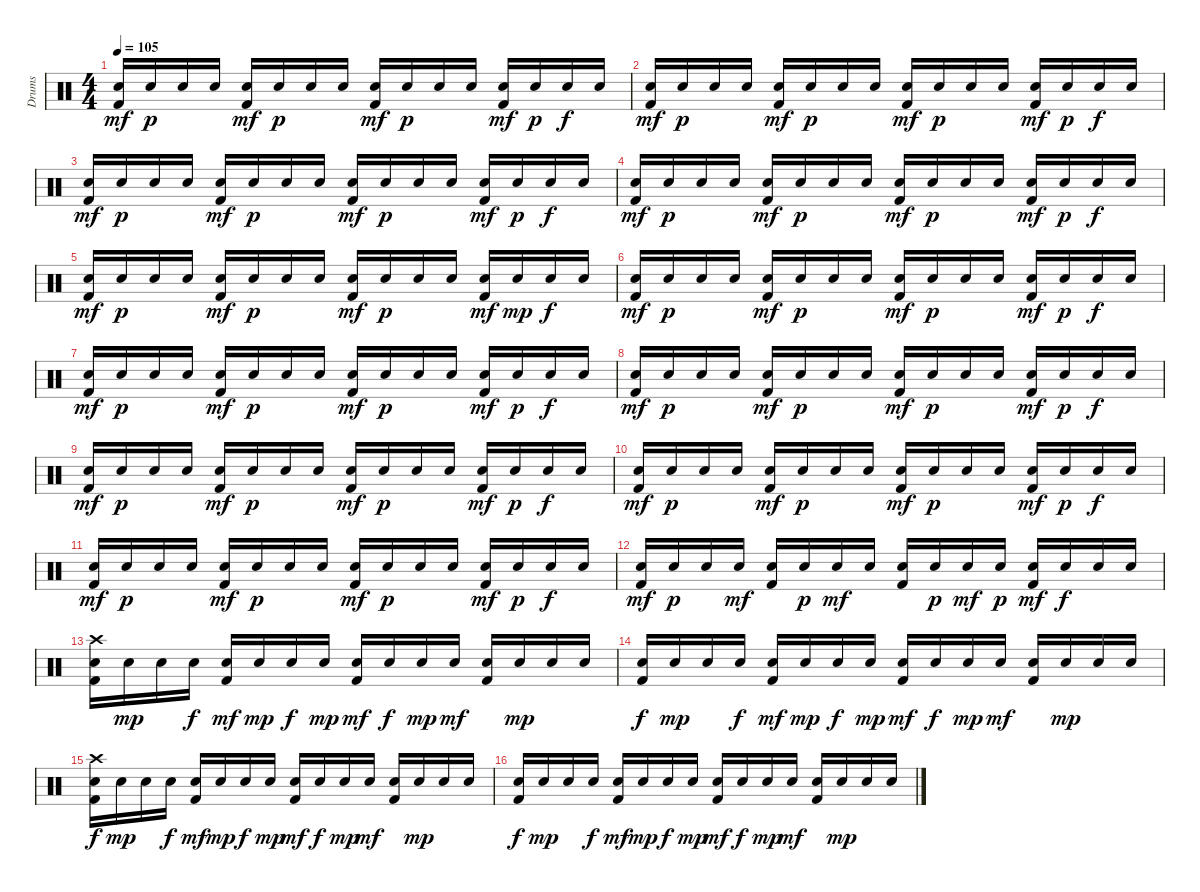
\track ("Drums" "Drums") {instrument percussion}
\staff {score}
\articulation defaults
\ts (4 4)
\tempo 105
\clef neutral
\ks c
("Snare (hit) 2" "Kick (hit) 2").16{dy mf} "Snare (hit) 2".16{dy p} "Snare (hit) 2".16 "Snare (hit) 2".16 ("Snare (hit) 2" "Kick (hit) 2").16{dy mf} "Snare (hit) 2".16{dy p} "Snare (hit) 2".16 "Snare (hit) 2".16 ("Snare (hit) 2" "Kick (hit) 2").16{dy mf} "Snare (hit) 2".16{dy p} "Snare (hit) 2".16 "Snare (hit) 2".16 ("Snare (hit) 2" "Kick (hit) 2").16{dy mf} "Snare (hit) 2".16{dy p} "Snare (hit) 2".16{dy f} "Snare (hit) 2".16 |
("Snare (hit) 2" "Kick (hit) 2").16{dy mf} "Snare (hit) 2".16{dy p} "Snare (hit) 2".16 "Snare (hit) 2".16 ("Snare (hit) 2" "Kick (hit) 2").16{dy mf} "Snare (hit) 2".16{dy p} "Snare (hit) 2".16 "Snare (hit) 2".16 ("Snare (hit) 2" "Kick (hit) 2").16{dy mf} "Snare (hit) 2".16{dy p} "Snare (hit) 2".16 "Snare (hit) 2".16 ("Snare (hit) 2" "Kick (hit) 2").16{dy mf} "Snare (hit) 2".16{dy p} "Snare (hit) 2".16{dy f} "Snare (hit) 2".16 |
("Snare (hit) 2" "Kick (hit) 2").16{dy mf} "Snare (hit) 2".16{dy p} "Snare (hit) 2".16 "Snare (hit) 2".16 ("Snare (hit) 2" "Kick (hit) 2").16{dy mf} "Snare (hit) 2".16{dy p} "Snare (hit) 2".16 "Snare (hit) 2".16 ("Snare (hit) 2" "Kick (hit) 2").16{dy mf} "Snare (hit) 2".16{dy p} "Snare (hit) 2".16 "Snare (hit) 2".16 ("Snare (hit) 2" "Kick (hit) 2").16{dy mf} "Snare (hit) 2".16{dy p} "Snare (hit) 2".16{dy f} "Snare (hit) 2".16 |
("Snare (hit) 2" "Kick (hit) 2").16{dy mf} "Snare (hit) 2".16{dy p} "Snare (hit) 2".16 "Snare (hit) 2".16 ("Snare (hit) 2" "Kick (hit) 2").16{dy mf} "Snare (hit) 2".16{dy p} "Snare (hit) 2".16 "Snare (hit) 2".16 ("Snare (hit) 2" "Kick (hit) 2").16{dy mf} "Snare (hit) 2".16{dy p} "Snare (hit) 2".16 "Snare (hit) 2".16 ("Snare (hit) 2" "Kick (hit) 2").16{dy mf} "Snare (hit) 2".16{dy p} "Snare (hit) 2".16{dy f} "Snare (hit) 2".16 |
("Snare (hit) 2" "Kick (hit) 2").16{dy mf volume 16} "Snare (hit) 2".16{dy p} "Snare (hit) 2".16 "Snare (hit) 2".16 ("Snare (hit) 2" "Kick (hit) 2").16{dy mf} "Snare (hit) 2".16{dy p} "Snare (hit) 2".16 "Snare (hit) 2".16 ("Snare (hit) 2" "Kick (hit) 2").16{dy mf} "Snare (hit) 2".16{dy p} "Snare (hit) 2".16 "Snare (hit) 2".16 ("Snare (hit) 2" "Kick (hit) 2").16{dy mf} "Snare (hit) 2".16{dy mp} "Snare (hit) 2".16{dy f} "Snare (hit) 2".16 |
("Snare (hit) 2" "Kick (hit) 2").16{dy mf} "Snare (hit) 2".16{dy p} "Snare (hit) 2".16 "Snare (hit) 2".16 ("Snare (hit) 2" "Kick (hit) 2").16{dy mf} "Snare (hit) 2".16{dy p} "Snare (hit) 2".16 "Snare (hit) 2".16 ("Snare (hit) 2" "Kick (hit) 2").16{dy mf} "Snare (hit) 2".16{dy p} "Snare (hit) 2".16 "Snare (hit) 2".16 ("Snare (hit) 2" "Kick (hit) 2").16{dy mf} "Snare (hit) 2".16{dy p} "Snare (hit) 2".16{dy f} "Snare (hit) 2".16 |
("Snare (hit) 2" "Kick (hit) 2").16{dy mf} "Snare (hit) 2".16{dy p} "Snare (hit) 2".16 "Snare (hit) 2".16 ("Snare (hit) 2" "Kick (hit) 2").16{dy mf} "Snare (hit) 2".16{dy p} "Snare (hit) 2".16 "Snare (hit) 2".16 ("Snare (hit) 2" "Kick (hit) 2").16{dy mf} "Snare (hit) 2".16{dy p} "Snare (hit) 2".16 "Snare (hit) 2".16 ("Snare (hit) 2" "Kick (hit) 2").16{dy mf} "Snare (hit) 2".16{dy p} "Snare (hit) 2".16{dy f} "Snare (hit) 2".16 |
("Snare (hit) 2" "Kick (hit) 2").16{dy mf} "Snare (hit) 2".16{dy p} "Snare (hit) 2".16 "Snare (hit) 2".16 ("Snare (hit) 2" "Kick (hit) 2").16{dy mf} "Snare (hit) 2".16{dy p} "Snare (hit) 2".16 "Snare (hit) 2".16 ("Snare (hit) 2" "Kick (hit) 2").16{dy mf} "Snare (hit) 2".16{dy p} "Snare (hit) 2".16 "Snare (hit) 2".16 ("Snare (hit) 2" "Kick (hit) 2").16{dy mf} "Snare (hit) 2".16{dy p} "Snare (hit) 2".16{dy f} "Snare (hit) 2".16 |
("Snare (hit) 2" "Kick (hit) 2").16{dy mf} "Snare (hit) 2".16{dy p} "Snare (hit) 2".16 "Snare (hit) 2".16 ("Snare (hit) 2" "Kick (hit) 2").16{dy mf} "Snare (hit) 2".16{dy p} "Snare (hit) 2".16 "Snare (hit) 2".16 ("Snare (hit) 2" "Kick (hit) 2").16{dy mf} "Snare (hit) 2".16{dy p} "Snare (hit) 2".16 "Snare (hit) 2".16 ("Snare (hit) 2" "Kick (hit) 2").16{dy mf} "Snare (hit) 2".16{dy p} "Snare (hit) 2".16{dy f} "Snare (hit) 2".16 |
("Snare (hit) 2" "Kick (hit) 2").16{dy mf} "Snare (hit) 2".16{dy p} "Snare (hit) 2".16 "Snare (hit) 2".16 ("Snare (hit) 2" "Kick (hit) 2").16{dy mf} "Snare (hit) 2".16{dy p} "Snare (hit) 2".16 "Snare (hit) 2".16 ("Snare (hit) 2" "Kick (hit) 2").16{dy mf} "Snare (hit) 2".16{dy p} "Snare (hit) 2".16 "Snare (hit) 2".16 ("Snare (hit) 2" "Kick (hit) 2").16{dy mf} "Snare (hit) 2".16{dy p} "Snare (hit) 2".16{dy f} "Snare (hit) 2".16 |
("Snare (hit) 2" "Kick (hit) 2").16{dy mf} "Snare (hit) 2".16{dy p} "Snare (hit) 2".16 "Snare (hit) 2".16 ("Snare (hit) 2" "Kick (hit) 2").16{dy mf} "Snare (hit) 2".16{dy p} "Snare (hit) 2".16 "Snare (hit) 2".16 ("Snare (hit) 2" "Kick (hit) 2").16{dy mf} "Snare (hit) 2".16{dy p} "Snare (hit) 2".16 "Snare (hit) 2".16 ("Snare (hit) 2" "Kick (hit) 2").16{dy mf} "Snare (hit) 2".16{dy p} "Snare (hit) 2".16{dy f} "Snare (hit) 2".16 |
("Snare (hit) 2" "Kick (hit) 2").16{dy mf} "Snare (hit) 2".16{dy p} "Snare (hit) 2".16 "Snare (hit) 2".16{dy mf} ("Snare (hit) 2" "Kick (hit) 2").16 "Snare (hit) 2".16{dy p} "Snare (hit) 2".16{dy mf} "Snare (hit) 2".16 ("Snare (hit) 2" "Kick (hit) 2").16 "Snare (hit) 2".16{dy p} "Snare (hit) 2".16{dy mf} "Snare (hit) 2".16{dy p} ("Snare (hit) 2" "Kick (hit) 2").16{dy mf} "Snare (hit) 2".16{dy f} "Snare (hit) 2".16 "Snare (hit) 2".16 |
("Crash high (hit)" "Snare (hit) 2" "Kick (hit) 2").16 "Snare (hit) 2".16{dy mp} "Snare (hit) 2".16 "Snare (hit) 2".16{dy f} ("Snare (hit) 2" "Kick (hit) 2").16{dy mf} "Snare (hit) 2".16{dy mp} "Snare (hit) 2".16{dy f} "Snare (hit) 2".16{dy mp} ("Snare (hit) 2" "Kick (hit) 2").16{dy mf} "Snare (hit) 2".16{dy f} "Snare (hit) 2".16{dy mp} "Snare (hit) 2".16{dy mf} ("Snare (hit) 2" "Kick (hit) 2").16 "Snare (hit) 2".16{dy mp} "Snare (hit) 2".16 "Snare (hit) 2".16 |
("Snare (hit) 2" "Kick (hit) 2").16{dy f} "Snare (hit) 2".16{dy mp} "Snare (hit) 2".16 "Snare (hit) 2".16{dy f} ("Snare (hit) 2" "Kick (hit) 2").16{dy mf} "Snare (hit) 2".16{dy mp} "Snare (hit) 2".16{dy f} "Snare (hit) 2".16{dy mp} ("Snare (hit) 2" "Kick (hit) 2").16{dy mf} "Snare (hit) 2".16{dy f} "Snare (hit) 2".16{dy mp} "Snare (hit) 2".16{dy mf} ("Snare (hit) 2" "Kick (hit) 2").16 "Snare (hit) 2".16{dy mp} "Snare (hit) 2".16 "Snare (hit) 2".16 |
("Crash high (hit)" "Snare (hit) 2" "Kick (hit) 2").16{dy f} "Snare (hit) 2".16{dy mp} "Snare (hit) 2".16 "Snare (hit) 2".16{dy f} ("Snare (hit) 2" "Kick (hit) 2").16{dy mf} "Snare (hit) 2".16{dy mp} "Snare (hit) 2".16{dy f} "Snare (hit) 2".16{dy mp} ("Snare (hit) 2" "Kick (hit) 2").16{dy mf} "Snare (hit) 2".16{dy f} "Snare (hit) 2".16{dy mp} "Snare (hit) 2".16{dy mf} ("Snare (hit) 2" "Kick (hit) 2").16 "Snare (hit) 2".16{dy mp} "Snare (hit) 2".16 "Snare (hit) 2".16 |
("Snare (hit) 2" "Kick (hit) 2").16{dy f} "Snare (hit) 2".16{dy mp} "Snare (hit) 2".16 "Snare (hit) 2".16{dy f} ("Snare (hit) 2" "Kick (hit) 2").16{dy mf} "Snare (hit) 2".16{dy mp} "Snare (hit) 2".16{dy f} "Snare (hit) 2".16{dy mp} ("Snare (hit) 2" "Kick (hit) 2").16{dy mf} "Snare (hit) 2".16{dy f} "Snare (hit) 2".16{dy mp} "Snare (hit) 2".16{dy mf} ("Snare (hit) 2" "Kick (hit) 2").16 "Snare (hit) 2".16{dy mp} "Snare (hit) 2".16 "Snare (hit) 2".16
